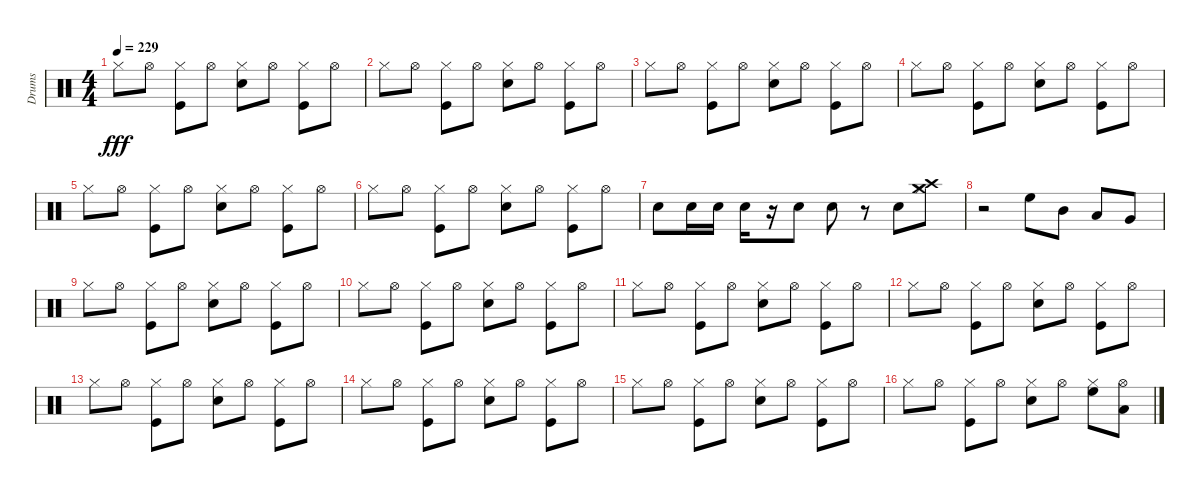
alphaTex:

\track ("Drums" "Drums") {instrument percussion}
\staff {score}
\articulation defaults
\ts (4 4)
\tempo 229
\clef neutral
\ks c "Hi-Hat (closed)".8{dy fff} "Hi-Hat (open)".8
("Hi-Hat (closed)" "Kick (hit)").8 "Hi-Hat (open)".8 ("Hi-Hat (closed)" "Electric Snare (hit)").8 "Hi-Hat (open)".8 ("Kick (hit)" "Hi-Hat (closed)").8 "Hi-Hat (open)".8 |
"Hi-Hat (closed)".8 "Hi-Hat (open)".8 ("Hi-Hat (closed)" "Kick (hit)").8 "Hi-Hat (open)".8 ("Hi-Hat (closed)" "Electric Snare (hit)").8 "Hi-Hat (open)".8 ("Kick (hit)" "Hi-Hat (closed)").8 "Hi-Hat (open)".8 |
"Hi-Hat (closed)".8 "Hi-Hat (open)".8 ("Hi-Hat (closed)" "Kick (hit)").8 "Hi-Hat (open)".8 ("Hi-Hat (closed)" "Electric Snare (hit)").8 "Hi-Hat (open)".8 ("Kick (hit)" "Hi-Hat (closed)").8 "Hi-Hat (open)".8 |
"Hi-Hat (closed)".8 "Hi-Hat (open)".8 ("Hi-Hat (closed)" "Kick (hit)").8 "Hi-Hat (open)".8 ("Hi-Hat (closed)" "Electric Snare (hit)").8 "Hi-Hat (open)".8 ("Kick (hit)" "Hi-Hat (closed)").8 "Hi-Hat (open)".8 |
"Hi-Hat (closed)".8 "Hi-Hat (open)".8 ("Hi-Hat (closed)" "Kick (hit)").8 "Hi-Hat (open)".8 ("Hi-Hat (closed)" "Electric Snare (hit)").8 "Hi-Hat (open)".8 ("Kick (hit)" "Hi-Hat (closed)").8 "Hi-Hat (open)".8 |
"Hi-Hat (closed)".8 "Hi-Hat (open)".8 ("Hi-Hat (closed)" "Kick (hit)").8 "Hi-Hat (open)".8 ("Hi-Hat (closed)" "Electric Snare (hit)").8 "Hi-Hat (open)".8 ("Kick (hit)" "Hi-Hat (closed)").8 "Hi-Hat (open)".8 |
"Electric Snare (hit)".8 "Electric Snare (hit)".16 "Electric Snare (hit)".16 "Electric Snare (hit)".16 r.16 "Electric Snare (hit)".8 "Electric Snare (hit)".8 r.8 "Electric Snare (hit)".8 ("Hi-Hat (closed)" "Crash high (hit)" "Crash medium (hit)").8 |
r.2 "High Floor Tom (hit)".8 "Mid Tom (hit)".8 "Low Tom (hit)".8 "Very Low Tom (hit)".8 |
"Hi-Hat (closed)".8 "Hi-Hat (open)".8 ("Hi-Hat (closed)" "Kick (hit)").8 "Hi-Hat (open)".8 ("Hi-Hat (closed)" "Electric Snare (hit)").8 "Hi-Hat (open)".8 ("Kick (hit)" "Hi-Hat (closed)").8 "Hi-Hat (open)".8 |
"Hi-Hat (closed)".8 "Hi-Hat (open)".8 ("Hi-Hat (closed)" "Kick (hit)").8 "Hi-Hat (open)".8 ("Hi-Hat (closed)" "Electric Snare (hit)").8 "Hi-Hat (open)".8 ("Kick (hit)" "Hi-Hat (closed)").8 "Hi-Hat (open)".8 |
"Hi-Hat (closed)".8 "Hi-Hat (open)".8 ("Hi-Hat (closed)" "Kick (hit)").8 "Hi-Hat (open)".8 ("Hi-Hat (closed)" "Electric Snare (hit)").8 "Hi-Hat (open)".8 ("Kick (hit)" "Hi-Hat (closed)").8 "Hi-Hat (open)".8 |
"Hi-Hat (closed)".8 "Hi-Hat (open)".8 ("Hi-Hat (closed)" "Kick (hit)").8 "Hi-Hat (open)".8 ("Hi-Hat (closed)" "Electric Snare (hit)").8 "Hi-Hat (open)".8 ("Kick (hit)" "Hi-Hat (closed)").8 "Hi-Hat (open)".8 |
"Hi-Hat (closed)".8 "Hi-Hat (open)".8 ("Hi-Hat (closed)" "Kick (hit)").8 "Hi-Hat (open)".8 ("Hi-Hat (closed)" "Electric Snare (hit)").8 "Hi-Hat (open)".8 ("Kick (hit)" "Hi-Hat (closed)").8 "Hi-Hat (open)".8 |
"Hi-Hat (closed)".8 "Hi-Hat (open)".8 ("Hi-Hat (closed)" "Kick (hit)").8 "Hi-Hat (open)".8 ("Hi-Hat (closed)" "Electric Snare (hit)").8 "Hi-Hat (open)".8 ("Kick (hit)" "Hi-Hat (closed)").8 "Hi-Hat (open)".8 |
"Hi-Hat (closed)".8 "Hi-Hat (open)".8 ("Hi-Hat (closed)" "Kick (hit)").8 "Hi-Hat (open)".8 ("Hi-Hat (closed)" "Electric Snare (hit)").8 "Hi-Hat (open)".8 ("Kick (hit)" "Hi-Hat (closed)").8 "Hi-Hat (open)".8 |
"Hi-Hat (closed)".8 "Hi-Hat (open)".8 ("Hi-Hat (closed)" "Kick (hit)").8 "Hi-Hat (open)".8 ("Hi-Hat (closed)" "Electric Snare (hit)").8 "Hi-Hat (open)".8 ("Hi-Hat (closed)" "High Floor Tom (hit)").8 ("Low Tom (hit)" "Hi-Hat (open)").8
